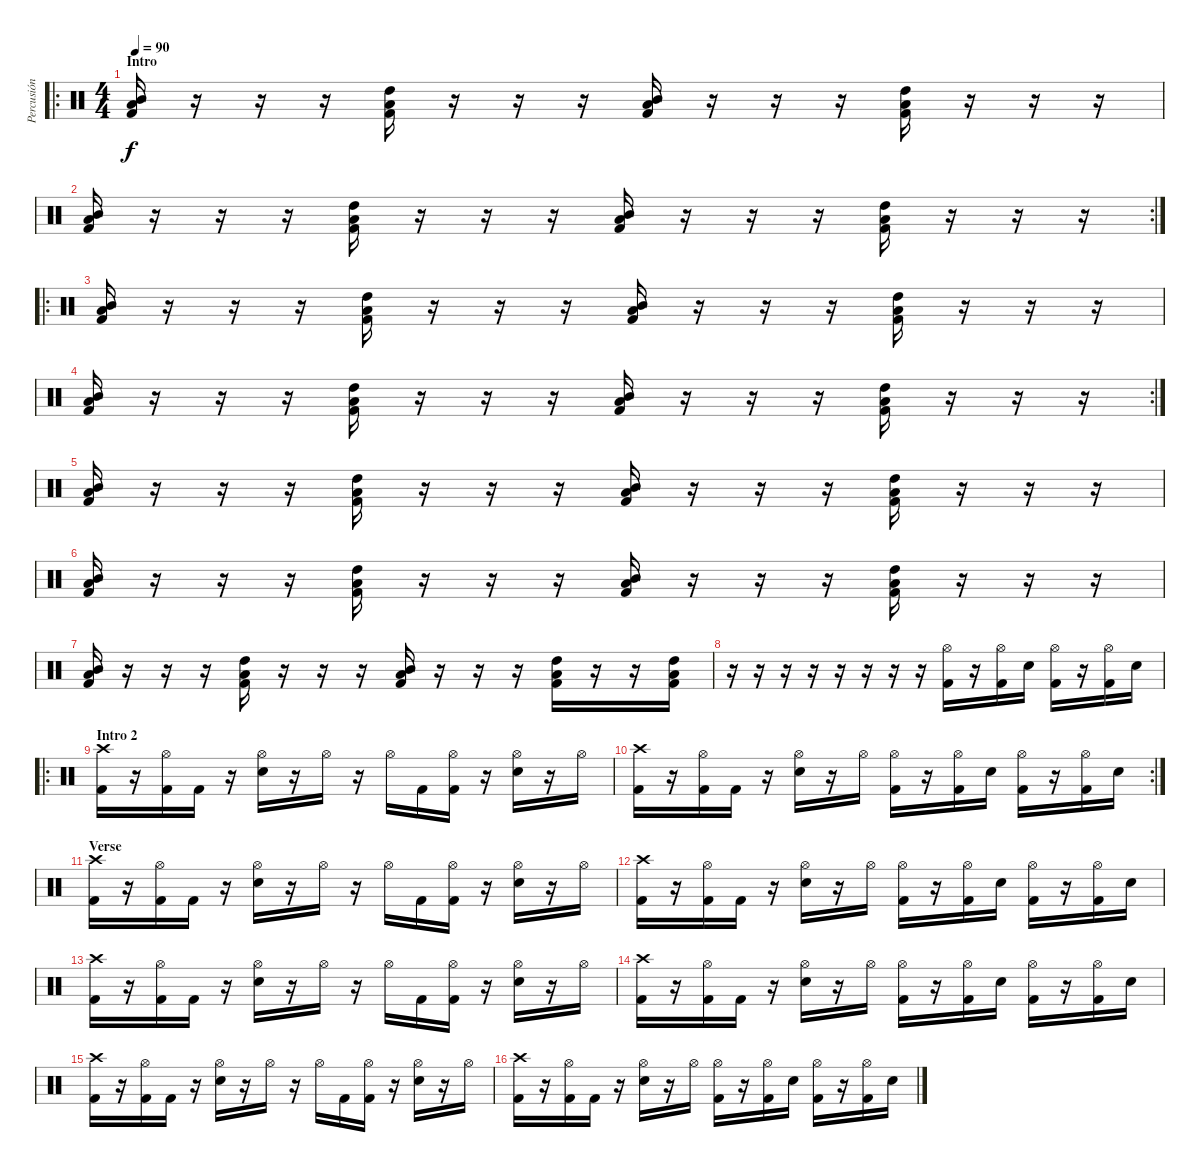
\track ("Percusión" "Percusión") {instrument percussion}
\staff {score}
\articulation defaults
\ro
\ts (4 4)
\section ("" "Intro")
\tempo 90
\clef neutral
\ks c
("Mid Tom (hit)" "Low Tom (hit)" "Kick (hit) 2").16{dy f} r.16 r.16 r.16 ("High Tom (hit)" "Low Tom (hit)" "Kick (hit) 2").16 r.16 r.16 r.16 ("Mid Tom (hit)" "Low Tom (hit)" "Kick (hit) 2").16 r.16 r.16 r.16 ("High Tom (hit)" "Low Tom (hit)" "Kick (hit) 2").16 r.16 r.16 r.16 |
\rc 2
("Mid Tom (hit)" "Low Tom (hit)" "Kick (hit) 2").16 r.16 r.16 r.16 ("High Tom (hit)" "Low Tom (hit)" "Kick (hit) 2").16 r.16 r.16 r.16 ("Mid Tom (hit)" "Low Tom (hit)" "Kick (hit) 2").16 r.16 r.16 r.16 ("High Tom (hit)" "Low Tom (hit)" "Kick (hit) 2").16 r.16 r.16 r.16 |
\ro
("Mid Tom (hit)" "Low Tom (hit)" "Kick (hit) 2").16 r.16 r.16 r.16 ("High Tom (hit)" "Low Tom (hit)" "Kick (hit) 2").16 r.16 r.16 r.16 ("Mid Tom (hit)" "Low Tom (hit)" "Kick (hit) 2").16 r.16 r.16 r.16 ("High Tom (hit)" "Low Tom (hit)" "Kick (hit) 2").16 r.16 r.16 r.16 |
\rc 2
("Mid Tom (hit)" "Low Tom (hit)" "Kick (hit) 2").16 r.16 r.16 r.16 ("High Tom (hit)" "Low Tom (hit)" "Kick (hit) 2").16 r.16 r.16 r.16 ("Mid Tom (hit)" "Low Tom (hit)" "Kick (hit) 2").16 r.16 r.16 r.16 ("High Tom (hit)" "Low Tom (hit)" "Kick (hit) 2").16 r.16 r.16 r.16 |
("Mid Tom (hit)" "Low Tom (hit)" "Kick (hit) 2").16 r.16 r.16 r.16 ("High Tom (hit)" "Low Tom (hit)" "Kick (hit) 2").16 r.16 r.16 r.16 ("Mid Tom (hit)" "Low Tom (hit)" "Kick (hit) 2").16 r.16 r.16 r.16 ("High Tom (hit)" "Low Tom (hit)" "Kick (hit) 2").16 r.16 r.16 r.16 |
("Mid Tom (hit)" "Low Tom (hit)" "Kick (hit) 2").16 r.16 r.16 r.16 ("High Tom (hit)" "Low Tom (hit)" "Kick (hit) 2").16 r.16 r.16 r.16 ("Mid Tom (hit)" "Low Tom (hit)" "Kick (hit) 2").16 r.16 r.16 r.16 ("High Tom (hit)" "Low Tom (hit)" "Kick (hit) 2").16 r.16 r.16 r.16 |
("Mid Tom (hit)" "Low Tom (hit)" "Kick (hit) 2").16 r.16 r.16 r.16 ("High Tom (hit)" "Low Tom (hit)" "Kick (hit) 2").16 r.16 r.16 r.16 ("Mid Tom (hit)" "Low Tom (hit)" "Kick (hit) 2").16 r.16 r.16 r.16 ("High Tom (hit)" "Low Tom (hit)" "Kick (hit) 2").16 r.16 r.16 ("High Tom (hit)" "Low Tom (hit)" "Kick (hit) 2").16 |
r.16 r.16 r.16 r.16 r.16 r.16 r.16 r.16 ("Hi-Hat (open)" "Kick (hit) 2").16 r.16 ("Hi-Hat (open)" "Kick (hit) 2").16 "Electric Snare (hit)".16 ("Hi-Hat (open)" "Kick (hit) 2").16 r.16 ("Hi-Hat (open)" "Kick (hit) 2").16 "Electric Snare (hit)".16 |
\ro
\section ("" "Intro 2")
("Crash high (hit)" "Kick (hit) 2").16 r.16 ("Hi-Hat (open)" "Kick (hit) 2").16 "Kick (hit) 2".16 r.16 ("Hi-Hat (open)" "Electric Snare (hit)").16 r.16 "Hi-Hat (open)".16 r.16 "Hi-Hat (open)".16 "Kick (hit) 2".16 ("Hi-Hat (open)" "Kick (hit) 2").16 r.16 ("Hi-Hat (open)" "Electric Snare (hit)").16 r.16 "Hi-Hat (open)".16 |
\rc 2
("Crash high (hit)" "Kick (hit) 2").16 r.16 ("Hi-Hat (open)" "Kick (hit) 2").16 "Kick (hit) 2".16 r.16 ("Hi-Hat (open)" "Electric Snare (hit)").16 r.16 "Hi-Hat (open)".16 ("Hi-Hat (open)" "Kick (hit) 2").16 r.16 ("Hi-Hat (open)" "Kick (hit) 2").16 "Electric Snare (hit)".16 ("Hi-Hat (open)" "Kick (hit) 2").16 r.16 ("Hi-Hat (open)" "Kick (hit) 2").16 "Electric Snare (hit)".16 |
\section ("" "Verse")
("Crash high (hit)" "Kick (hit) 2").16 r.16 ("Hi-Hat (open)" "Kick (hit) 2").16 "Kick (hit) 2".16 r.16 ("Hi-Hat (open)" "Electric Snare (hit)").16 r.16 "Hi-Hat (open)".16 r.16 "Hi-Hat (open)".16 "Kick (hit) 2".16 ("Hi-Hat (open)" "Kick (hit) 2").16 r.16 ("Hi-Hat (open)" "Electric Snare (hit)").16 r.16 "Hi-Hat (open)".16 |
("Crash high (hit)" "Kick (hit) 2").16 r.16 ("Hi-Hat (open)" "Kick (hit) 2").16 "Kick (hit) 2".16 r.16 ("Hi-Hat (open)" "Electric Snare (hit)").16 r.16 "Hi-Hat (open)".16 ("Hi-Hat (open)" "Kick (hit) 2").16 r.16 ("Hi-Hat (open)" "Kick (hit) 2").16 "Electric Snare (hit)".16 ("Hi-Hat (open)" "Kick (hit) 2").16 r.16 ("Hi-Hat (open)" "Kick (hit) 2").16 "Electric Snare (hit)".16 |
("Crash high (hit)" "Kick (hit) 2").16 r.16 ("Hi-Hat (open)" "Kick (hit) 2").16 "Kick (hit) 2".16 r.16 ("Hi-Hat (open)" "Electric Snare (hit)").16 r.16 "Hi-Hat (open)".16 r.16 "Hi-Hat (open)".16 "Kick (hit) 2".16 ("Hi-Hat (open)" "Kick (hit) 2").16 r.16 ("Hi-Hat (open)" "Electric Snare (hit)").16 r.16 "Hi-Hat (open)".16 |
("Crash high (hit)" "Kick (hit) 2").16 r.16 ("Hi-Hat (open)" "Kick (hit) 2").16 "Kick (hit) 2".16 r.16 ("Hi-Hat (open)" "Electric Snare (hit)").16 r.16 "Hi-Hat (open)".16 ("Hi-Hat (open)" "Kick (hit) 2").16 r.16 ("Hi-Hat (open)" "Kick (hit) 2").16 "Electric Snare (hit)".16 ("Hi-Hat (open)" "Kick (hit) 2").16 r.16 ("Hi-Hat (open)" "Kick (hit) 2").16 "Electric Snare (hit)".16 |
("Crash high (hit)" "Kick (hit) 2").16 r.16 ("Hi-Hat (open)" "Kick (hit) 2").16 "Kick (hit) 2".16 r.16 ("Hi-Hat (open)" "Electric Snare (hit)").16 r.16 "Hi-Hat (open)".16 r.16 "Hi-Hat (open)".16 "Kick (hit) 2".16 ("Hi-Hat (open)" "Kick (hit) 2").16 r.16 ("Hi-Hat (open)" "Electric Snare (hit)").16 r.16 "Hi-Hat (open)".16 |
("Crash high (hit)" "Kick (hit) 2").16 r.16 ("Hi-Hat (open)" "Kick (hit) 2").16 "Kick (hit) 2".16 r.16 ("Hi-Hat (open)" "Electric Snare (hit)").16 r.16 "Hi-Hat (open)".16 ("Hi-Hat (open)" "Kick (hit) 2").16 r.16 ("Hi-Hat (open)" "Kick (hit) 2").16 "Electric Snare (hit)".16 ("Hi-Hat (open)" "Kick (hit) 2").16 r.16 ("Hi-Hat (open)" "Kick (hit) 2").16 "Electric Snare (hit)".16
